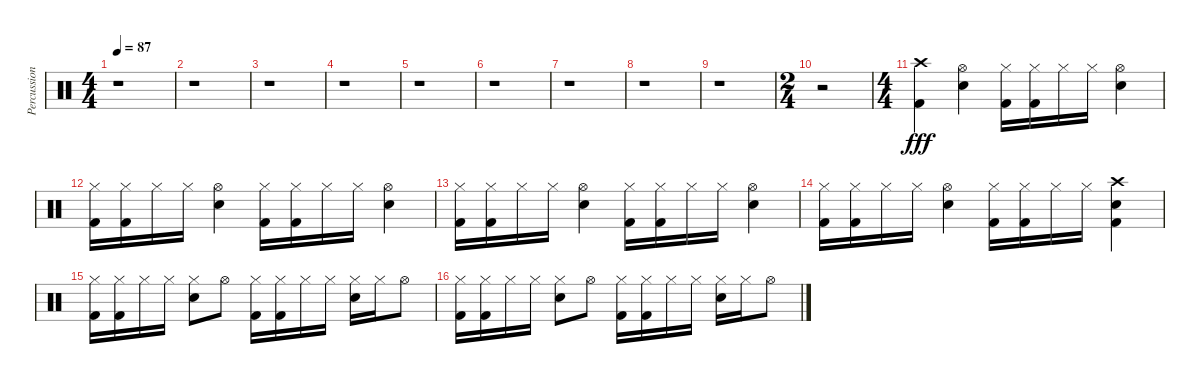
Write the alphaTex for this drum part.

\track ("Percussions" "Percussion") {instrument percussion}
\staff {score}
\articulation defaults
\ts (4 4)
\tempo 87
\clef neutral
\ks c
r.1{dy fff} |
r.1 |
r.1 |
r.1 |
r.1 |
r.1 |
r.1 |
r.1 |
r.1 |
\ts (2 4)
r.2 |
\ts (4 4)
("Crash high (hit)" "Kick (hit) 2").4 ("Electric Snare (hit)" "Hi-Hat (open)").4 ("Hi-Hat (closed)" "Kick (hit) 2").16 ("Hi-Hat (closed)" "Kick (hit) 2").16 "Hi-Hat (closed)".16 "Hi-Hat (closed)".16 ("Electric Snare (hit)" "Hi-Hat (open)").4 |
("Hi-Hat (closed)" "Kick (hit) 2").16 ("Hi-Hat (closed)" "Kick (hit) 2").16 "Hi-Hat (closed)".16 "Hi-Hat (closed)".16 ("Electric Snare (hit)" "Hi-Hat (open)").4 ("Hi-Hat (closed)" "Kick (hit) 2").16 ("Hi-Hat (closed)" "Kick (hit) 2").16 "Hi-Hat (closed)".16 "Hi-Hat (closed)".16 ("Electric Snare (hit)" "Hi-Hat (open)").4 |
("Hi-Hat (closed)" "Kick (hit) 2").16 ("Hi-Hat (closed)" "Kick (hit) 2").16 "Hi-Hat (closed)".16 "Hi-Hat (closed)".16 ("Electric Snare (hit)" "Hi-Hat (open)").4 ("Hi-Hat (closed)" "Kick (hit) 2").16 ("Hi-Hat (closed)" "Kick (hit) 2").16 "Hi-Hat (closed)".16 "Hi-Hat (closed)".16 ("Electric Snare (hit)" "Hi-Hat (open)").4 |
("Hi-Hat (closed)" "Kick (hit) 2").16 ("Hi-Hat (closed)" "Kick (hit) 2").16 "Hi-Hat (closed)".16 "Hi-Hat (closed)".16 ("Electric Snare (hit)" "Hi-Hat (open)").4 ("Hi-Hat (closed)" "Kick (hit) 2").16 ("Hi-Hat (closed)" "Kick (hit) 2").16 "Hi-Hat (closed)".16 "Hi-Hat (closed)".16 ("Electric Snare (hit)" "Crash high (hit)" "Kick (hit) 2").4 |
("Hi-Hat (closed)" "Kick (hit) 2").16 ("Hi-Hat (closed)" "Kick (hit) 2").16 "Hi-Hat (closed)".16 "Hi-Hat (closed)".16 ("Electric Snare (hit)" "Hi-Hat (closed)").8 "Hi-Hat (open)".8 ("Hi-Hat (closed)" "Kick (hit) 2").16 ("Hi-Hat (closed)" "Kick (hit) 2").16 "Hi-Hat (closed)".16 "Hi-Hat (closed)".16 ("Electric Snare (hit)" "Hi-Hat (closed)").16 "Hi-Hat (closed)".16 "Hi-Hat (open)".8 |
("Hi-Hat (closed)" "Kick (hit) 2").16 ("Hi-Hat (closed)" "Kick (hit) 2").16 "Hi-Hat (closed)".16 "Hi-Hat (closed)".16 ("Electric Snare (hit)" "Hi-Hat (closed)").8 "Hi-Hat (open)".8 ("Hi-Hat (closed)" "Kick (hit) 2").16 ("Hi-Hat (closed)" "Kick (hit) 2").16 "Hi-Hat (closed)".16 "Hi-Hat (closed)".16 ("Electric Snare (hit)" "Hi-Hat (closed)").16 "Hi-Hat (closed)".16 "Hi-Hat (open)".8
